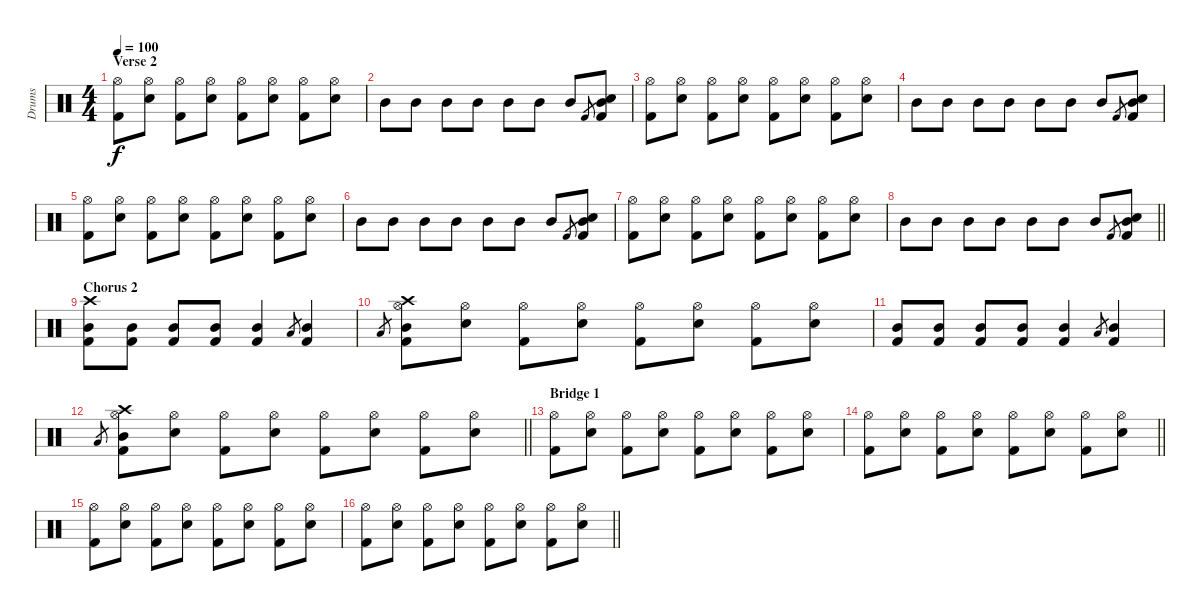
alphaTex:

\track ("Drums" "Drums") {instrument percussion}
\staff {score}
\articulation defaults
\ts (4 4)
\section ("" "Verse 2")
\tempo 100
\clef neutral
\ks c
("Hi-Hat (open)" "Kick (hit) 2").8{dy f} ("Hi-Hat (open)" "Snare (hit) 2").8 ("Hi-Hat (open)" "Kick (hit) 2").8 ("Hi-Hat (open)" "Snare (hit) 2").8 ("Hi-Hat (open)" "Kick (hit) 2").8 ("Hi-Hat (open)" "Snare (hit) 2").8 ("Hi-Hat (open)" "Kick (hit) 2").8 ("Hi-Hat (open)" "Snare (hit) 2").8 |
"Mid Tom (hit)".8 "Mid Tom (hit)".8 "Mid Tom (hit)".8 "Mid Tom (hit)".8 "Mid Tom (hit)".8 "Mid Tom (hit)".8 "Mid Tom (hit)".8 "Kick (hit) 2".8{gr} ("Mid Tom (hit)" "Snare (hit) 2" "Kick (hit) 2").8 |
("Hi-Hat (open)" "Kick (hit) 2").8 ("Hi-Hat (open)" "Snare (hit) 2").8 ("Hi-Hat (open)" "Kick (hit) 2").8 ("Hi-Hat (open)" "Snare (hit) 2").8 ("Hi-Hat (open)" "Kick (hit) 2").8 ("Hi-Hat (open)" "Snare (hit) 2").8 ("Hi-Hat (open)" "Kick (hit) 2").8 ("Hi-Hat (open)" "Snare (hit) 2").8 |
"Mid Tom (hit)".8 "Mid Tom (hit)".8 "Mid Tom (hit)".8 "Mid Tom (hit)".8 "Mid Tom (hit)".8 "Mid Tom (hit)".8 "Mid Tom (hit)".8 "Kick (hit) 2".8{gr} ("Mid Tom (hit)" "Snare (hit) 2" "Kick (hit) 2").8 |
("Hi-Hat (open)" "Kick (hit) 2").8 ("Hi-Hat (open)" "Snare (hit) 2").8 ("Hi-Hat (open)" "Kick (hit) 2").8 ("Hi-Hat (open)" "Snare (hit) 2").8 ("Hi-Hat (open)" "Kick (hit) 2").8 ("Hi-Hat (open)" "Snare (hit) 2").8 ("Hi-Hat (open)" "Kick (hit) 2").8 ("Hi-Hat (open)" "Snare (hit) 2").8 |
"Mid Tom (hit)".8 "Mid Tom (hit)".8 "Mid Tom (hit)".8 "Mid Tom (hit)".8 "Mid Tom (hit)".8 "Mid Tom (hit)".8 "Mid Tom (hit)".8 "Kick (hit) 2".8{gr} ("Mid Tom (hit)" "Snare (hit) 2" "Kick (hit) 2").8 |
("Hi-Hat (open)" "Kick (hit) 2").8 ("Hi-Hat (open)" "Snare (hit) 2").8 ("Hi-Hat (open)" "Kick (hit) 2").8 ("Hi-Hat (open)" "Snare (hit) 2").8 ("Hi-Hat (open)" "Kick (hit) 2").8 ("Hi-Hat (open)" "Snare (hit) 2").8 ("Hi-Hat (open)" "Kick (hit) 2").8 ("Hi-Hat (open)" "Snare (hit) 2").8 |
\barLineRight lightlight "Mid Tom (hit)".8 "Mid Tom (hit)".8 "Mid Tom (hit)".8 "Mid Tom (hit)".8 "Mid Tom (hit)".8 "Mid Tom (hit)".8 "Mid Tom (hit)".8 "Kick (hit) 2".8{gr}
("Mid Tom (hit)" "Snare (hit) 2" "Kick (hit) 2").8 |
\section ("" "Chorus 2")
("Crash high (hit)" "Mid Tom (hit)" "Kick (hit) 2").8 ("Mid Tom (hit)" "Kick (hit) 2").8 ("Mid Tom (hit)" "Kick (hit) 2").8 ("Mid Tom (hit)" "Kick (hit) 2").8 ("Mid Tom (hit)" "Kick (hit) 2").4 "Low Floor Tom (hit)".8{gr} ("Mid Tom (hit)" "Kick (hit) 2").4 |
"Low Floor Tom (hit)".8{gr} ("Crash high (hit)" "Hi-Hat (open)" "Mid Tom (hit)" "Kick (hit) 2").8 ("Hi-Hat (open)" "Snare (hit) 2").8 ("Hi-Hat (open)" "Kick (hit) 2").8 ("Hi-Hat (open)" "Snare (hit) 2").8 ("Hi-Hat (open)" "Kick (hit) 2").8 ("Hi-Hat (open)" "Snare (hit) 2").8 ("Hi-Hat (open)" "Kick (hit) 2").8 ("Hi-Hat (open)" "Snare (hit) 2").8 |
("Mid Tom (hit)" "Kick (hit) 2").8 ("Mid Tom (hit)" "Kick (hit) 2").8 ("Mid Tom (hit)" "Kick (hit) 2").8 ("Mid Tom (hit)" "Kick (hit) 2").8 ("Mid Tom (hit)" "Kick (hit) 2").4 "Low Floor Tom (hit)".8{gr} ("Mid Tom (hit)" "Kick (hit) 2").4 |
\barLineRight lightlight "Low Floor Tom (hit)".8{gr}
("Crash high (hit)" "Hi-Hat (open)" "Mid Tom (hit)" "Kick (hit) 2").8 ("Hi-Hat (open)" "Snare (hit) 2").8 ("Hi-Hat (open)" "Kick (hit) 2").8 ("Hi-Hat (open)" "Snare (hit) 2").8 ("Hi-Hat (open)" "Kick (hit) 2").8 ("Hi-Hat (open)" "Snare (hit) 2").8 ("Hi-Hat (open)" "Kick (hit) 2").8 ("Hi-Hat (open)" "Snare (hit) 2").8 |
\section ("" "Bridge 1")
("Hi-Hat (open)" "Kick (hit) 2").8 ("Hi-Hat (open)" "Snare (hit) 2").8 ("Hi-Hat (open)" "Kick (hit) 2").8 ("Hi-Hat (open)" "Snare (hit) 2").8 ("Hi-Hat (open)" "Kick (hit) 2").8 ("Hi-Hat (open)" "Snare (hit) 2").8 ("Hi-Hat (open)" "Kick (hit) 2").8 ("Hi-Hat (open)" "Snare (hit) 2").8 |
\barLineRight lightlight
("Hi-Hat (open)" "Kick (hit) 2").8 ("Hi-Hat (open)" "Snare (hit) 2").8 ("Hi-Hat (open)" "Kick (hit) 2").8 ("Hi-Hat (open)" "Snare (hit) 2").8 ("Hi-Hat (open)" "Kick (hit) 2").8 ("Hi-Hat (open)" "Snare (hit) 2").8 ("Hi-Hat (open)" "Kick (hit) 2").8 ("Hi-Hat (open)" "Snare (hit) 2").8 |
("Hi-Hat (open)" "Kick (hit) 2").8 ("Hi-Hat (open)" "Snare (hit) 2").8 ("Hi-Hat (open)" "Kick (hit) 2").8 ("Hi-Hat (open)" "Snare (hit) 2").8 ("Hi-Hat (open)" "Kick (hit) 2").8 ("Hi-Hat (open)" "Snare (hit) 2").8 ("Hi-Hat (open)" "Kick (hit) 2").8 ("Hi-Hat (open)" "Snare (hit) 2").8 |
\barLineRight lightlight
("Hi-Hat (open)" "Kick (hit) 2").8 ("Hi-Hat (open)" "Snare (hit) 2").8 ("Hi-Hat (open)" "Kick (hit) 2").8 ("Hi-Hat (open)" "Snare (hit) 2").8 ("Hi-Hat (open)" "Kick (hit) 2").8 ("Hi-Hat (open)" "Snare (hit) 2").8 ("Hi-Hat (open)" "Kick (hit) 2").8 ("Hi-Hat (open)" "Snare (hit) 2").8
